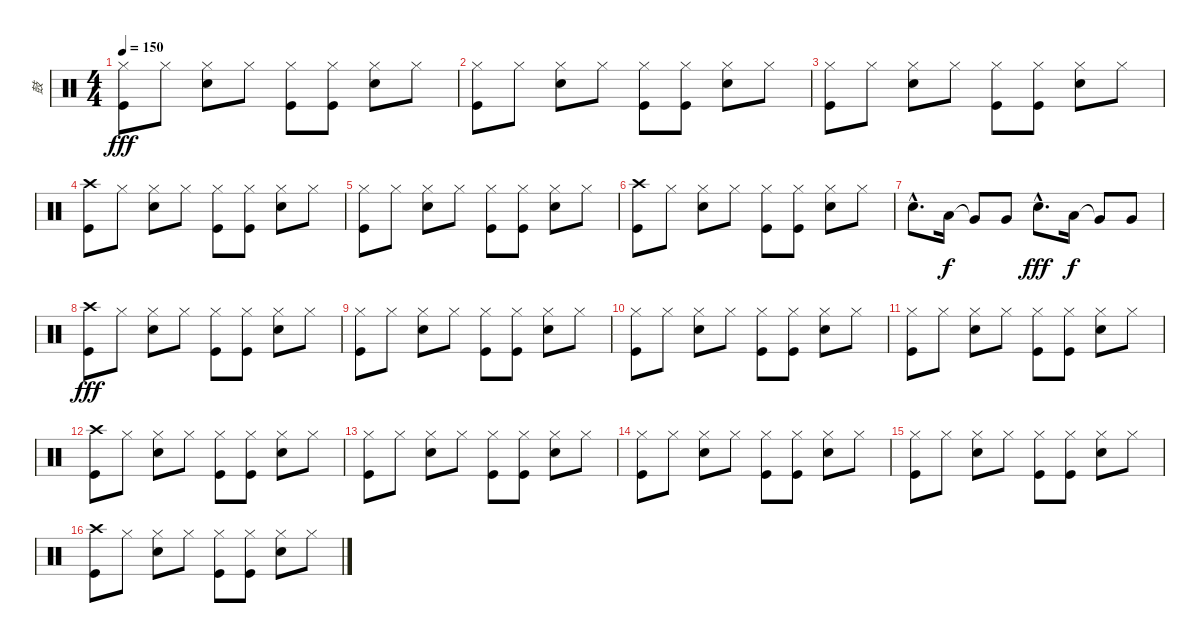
\track ("鼓" "鼓") {instrument percussion}
\staff {score}
\articulation defaults
\ts (4 4)
\tempo 150
\clef neutral
\ks c
("Hi-Hat (closed)" "Kick (hit)").8{dy fff} "Hi-Hat (closed)".8 ("Hi-Hat (closed)" "Electric Snare (hit)").8 "Hi-Hat (closed)".8 ("Hi-Hat (closed)" "Kick (hit)").8 ("Hi-Hat (closed)" "Kick (hit)").8 ("Hi-Hat (closed)" "Electric Snare (hit)").8 "Hi-Hat (closed)".8 |
("Hi-Hat (closed)" "Kick (hit)").8 "Hi-Hat (closed)".8 ("Hi-Hat (closed)" "Electric Snare (hit)").8 "Hi-Hat (closed)".8 ("Hi-Hat (closed)" "Kick (hit)").8 ("Hi-Hat (closed)" "Kick (hit)").8 ("Hi-Hat (closed)" "Electric Snare (hit)").8 "Hi-Hat (closed)".8 |
("Hi-Hat (closed)" "Kick (hit)").8 "Hi-Hat (closed)".8 ("Hi-Hat (closed)" "Electric Snare (hit)").8 "Hi-Hat (closed)".8 ("Hi-Hat (closed)" "Kick (hit)").8 ("Hi-Hat (closed)" "Kick (hit)").8 ("Hi-Hat (closed)" "Electric Snare (hit)").8 "Hi-Hat (closed)".8 |
("Crash high (hit)" "Kick (hit)").8 "Hi-Hat (closed)".8 ("Hi-Hat (closed)" "Electric Snare (hit)").8 "Hi-Hat (closed)".8 ("Hi-Hat (closed)" "Kick (hit)").8 ("Hi-Hat (closed)" "Kick (hit)").8 ("Hi-Hat (closed)" "Electric Snare (hit)").8 "Hi-Hat (closed)".8 |
("Hi-Hat (closed)" "Kick (hit)").8 "Hi-Hat (closed)".8 ("Hi-Hat (closed)" "Electric Snare (hit)").8 "Hi-Hat (closed)".8 ("Hi-Hat (closed)" "Kick (hit)").8 ("Hi-Hat (closed)" "Kick (hit)").8 ("Hi-Hat (closed)" "Electric Snare (hit)").8 "Hi-Hat (closed)".8 |
("Crash high (hit)" "Kick (hit)").8 "Hi-Hat (closed)".8 ("Hi-Hat (closed)" "Electric Snare (hit)").8 "Hi-Hat (closed)".8 ("Hi-Hat (closed)" "Kick (hit)").8 ("Hi-Hat (closed)" "Kick (hit)").8 ("Hi-Hat (closed)" "Electric Snare (hit)").8 "Hi-Hat (closed)".8 |
"Electric Snare (hit)"{hac}.8{d} "Low Tom (hit)".16{dy f} "Very Low Tom (hit)"{t}.8 "Very Low Tom (hit)".8 "Electric Snare (hit)"{hac}.8{d dy fff} "Low Tom (hit)".16{dy f} "Very Low Tom (hit)"{t}.8 "Very Low Tom (hit)".8 |
("Crash high (hit)" "Kick (hit)").8{dy fff} "Hi-Hat (closed)".8 ("Hi-Hat (closed)" "Electric Snare (hit)").8 "Hi-Hat (closed)".8 ("Hi-Hat (closed)" "Kick (hit)").8 ("Hi-Hat (closed)" "Kick (hit)").8 ("Hi-Hat (closed)" "Electric Snare (hit)").8 "Hi-Hat (closed)".8 |
("Hi-Hat (closed)" "Kick (hit)").8 "Hi-Hat (closed)".8 ("Hi-Hat (closed)" "Electric Snare (hit)").8 "Hi-Hat (closed)".8 ("Hi-Hat (closed)" "Kick (hit)").8 ("Hi-Hat (closed)" "Kick (hit)").8 ("Hi-Hat (closed)" "Electric Snare (hit)").8 "Hi-Hat (closed)".8 |
("Hi-Hat (closed)" "Kick (hit)").8 "Hi-Hat (closed)".8 ("Hi-Hat (closed)" "Electric Snare (hit)").8 "Hi-Hat (closed)".8 ("Hi-Hat (closed)" "Kick (hit)").8 ("Hi-Hat (closed)" "Kick (hit)").8 ("Hi-Hat (closed)" "Electric Snare (hit)").8 "Hi-Hat (closed)".8 |
("Hi-Hat (closed)" "Kick (hit)").8 "Hi-Hat (closed)".8 ("Hi-Hat (closed)" "Electric Snare (hit)").8 "Hi-Hat (closed)".8 ("Hi-Hat (closed)" "Kick (hit)").8 ("Hi-Hat (closed)" "Kick (hit)").8 ("Hi-Hat (closed)" "Electric Snare (hit)").8 "Hi-Hat (closed)".8 |
("Crash high (hit)" "Kick (hit)").8 "Hi-Hat (closed)".8 ("Hi-Hat (closed)" "Electric Snare (hit)").8 "Hi-Hat (closed)".8 ("Hi-Hat (closed)" "Kick (hit)").8 ("Hi-Hat (closed)" "Kick (hit)").8 ("Hi-Hat (closed)" "Electric Snare (hit)").8 "Hi-Hat (closed)".8 |
("Hi-Hat (closed)" "Kick (hit)").8 "Hi-Hat (closed)".8 ("Hi-Hat (closed)" "Electric Snare (hit)").8 "Hi-Hat (closed)".8 ("Hi-Hat (closed)" "Kick (hit)").8 ("Hi-Hat (closed)" "Kick (hit)").8 ("Hi-Hat (closed)" "Electric Snare (hit)").8 "Hi-Hat (closed)".8 |
("Hi-Hat (closed)" "Kick (hit)").8 "Hi-Hat (closed)".8 ("Hi-Hat (closed)" "Electric Snare (hit)").8 "Hi-Hat (closed)".8 ("Hi-Hat (closed)" "Kick (hit)").8 ("Hi-Hat (closed)" "Kick (hit)").8 ("Hi-Hat (closed)" "Electric Snare (hit)").8 "Hi-Hat (closed)".8 |
("Hi-Hat (closed)" "Kick (hit)").8 "Hi-Hat (closed)".8 ("Hi-Hat (closed)" "Electric Snare (hit)").8 "Hi-Hat (closed)".8 ("Hi-Hat (closed)" "Kick (hit)").8 ("Hi-Hat (closed)" "Kick (hit)").8 ("Hi-Hat (closed)" "Electric Snare (hit)").8 "Hi-Hat (closed)".8 |
("Crash high (hit)" "Kick (hit)").8 "Hi-Hat (closed)".8 ("Hi-Hat (closed)" "Electric Snare (hit)").8 "Hi-Hat (closed)".8 ("Hi-Hat (closed)" "Kick (hit)").8 ("Hi-Hat (closed)" "Kick (hit)").8 ("Hi-Hat (closed)" "Electric Snare (hit)").8 "Hi-Hat (closed)".8
